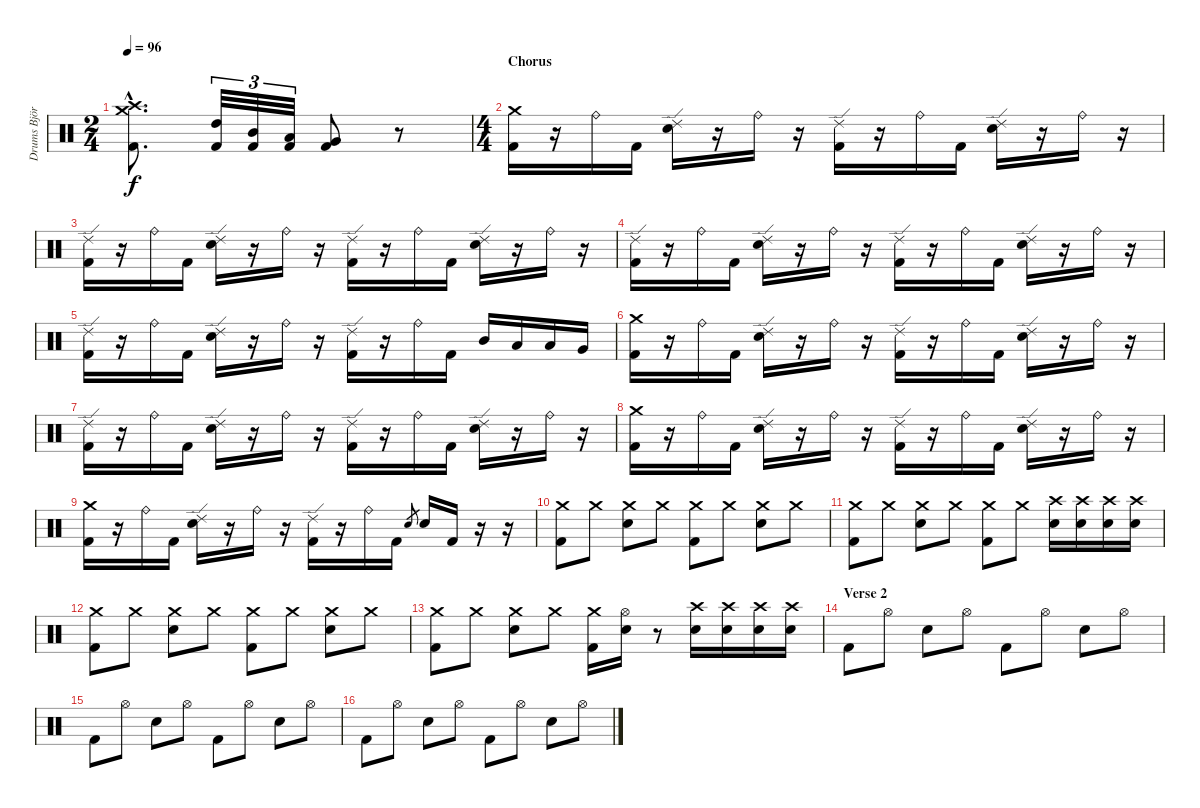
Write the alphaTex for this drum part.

\track ("Drums Björn Fryklund" "Drums Björ") {instrument percussion}
\staff {score}
\articulation defaults
\ts (2 4)
\tempo 96
\clef neutral
\ks c
("Crash medium (hit)"{hac} "Crash high (hit)"{hac} "Kick (hit) 2"{hac}).8{d dy f} ("High Tom (hit)" "Kick (hit) 2").32{tu (3 2)} ("Mid Tom (hit)" "Kick (hit) 2").32{tu (3 2)} ("Low Tom (hit)" "Kick (hit) 2").32{tu (3 2)} ("Very Low Tom (hit)" "Kick (hit) 2").8 r.8 |
\ts (4 4)
\section ("" "Chorus")
("Crash medium (hit)" "Kick (hit) 2").16 r.16 "Ride (bell)".16 "Kick (hit) 2".16 ("Ride (edge) 2" "Snare (hit) 2").16 r.16 "Ride (bell)".16 r.16 ("Ride (edge) 2" "Kick (hit) 2").16 r.16 "Ride (bell)".16 "Kick (hit) 2".16 ("Ride (edge) 2" "Snare (hit) 2").16 r.16 "Ride (bell)".16 r.16 |
("Ride (edge) 2" "Kick (hit) 2").16 r.16 "Ride (bell)".16 "Kick (hit) 2".16 ("Ride (edge) 2" "Snare (hit) 2").16 r.16 "Ride (bell)".16 r.16 ("Ride (edge) 2" "Kick (hit) 2").16 r.16 "Ride (bell)".16 "Kick (hit) 2".16 ("Ride (edge) 2" "Snare (hit) 2").16 r.16 "Ride (bell)".16 r.16 |
("Ride (edge) 2" "Kick (hit) 2").16 r.16 "Ride (bell)".16 "Kick (hit) 2".16 ("Ride (edge) 2" "Snare (hit) 2").16 r.16 "Ride (bell)".16 r.16 ("Ride (edge) 2" "Kick (hit) 2").16 r.16 "Ride (bell)".16 "Kick (hit) 2".16 ("Ride (edge) 2" "Snare (hit) 2").16 r.16 "Ride (bell)".16 r.16 |
("Ride (edge) 2" "Kick (hit) 2").16 r.16 "Ride (bell)".16 "Kick (hit) 2".16 ("Ride (edge) 2" "Snare (hit) 2").16 r.16 "Ride (bell)".16 r.16 ("Ride (edge) 2" "Kick (hit) 2").16 r.16 "Ride (bell)".16 "Kick (hit) 2".16 "Mid Tom (hit)".16 "Low Tom (hit)".16 "Low Tom (hit)".16 "Very Low Tom (hit)".16 |
("Crash medium (hit)" "Kick (hit) 2").16 r.16 "Ride (bell)".16 "Kick (hit) 2".16 ("Ride (edge) 2" "Snare (hit) 2").16 r.16 "Ride (bell)".16 r.16 ("Ride (edge) 2" "Kick (hit) 2").16 r.16 "Ride (bell)".16 "Kick (hit) 2".16 ("Ride (edge) 2" "Snare (hit) 2").16 r.16 "Ride (bell)".16 r.16 |
("Ride (edge) 2" "Kick (hit) 2").16 r.16 "Ride (bell)".16 "Kick (hit) 2".16 ("Ride (edge) 2" "Snare (hit) 2").16 r.16 "Ride (bell)".16 r.16 ("Ride (edge) 2" "Kick (hit) 2").16 r.16 "Ride (bell)".16 "Kick (hit) 2".16 ("Ride (edge) 2" "Snare (hit) 2").16 r.16 "Ride (bell)".16 r.16 |
("Crash medium (hit)" "Kick (hit) 2").16 r.16 "Ride (bell)".16 "Kick (hit) 2".16 ("Ride (edge) 2" "Snare (hit) 2").16 r.16 "Ride (bell)".16 r.16 ("Ride (edge) 2" "Kick (hit) 2").16 r.16 "Ride (bell)".16 "Kick (hit) 2".16 ("Ride (edge) 2" "Snare (hit) 2").16 r.16 "Ride (bell)".16 r.16 |
("Crash medium (hit)" "Kick (hit) 2").16 r.16 "Ride (bell)".16 "Kick (hit) 2".16 ("Ride (edge) 2" "Snare (hit) 2").16 r.16 "Ride (bell)".16 r.16 ("Ride (edge) 2" "Kick (hit) 2").16 r.16 "Ride (bell)".16 "Kick (hit) 2".16 "Snare (hit) 2".8{gr} "Snare (hit) 2".16 "Kick (hit) 2".16 r.16 r.16 |
("Crash medium (hit)" "Kick (hit) 2").8 "Crash medium (hit)".8 ("Crash medium (hit)" "Snare (hit) 2").8 "Crash medium (hit)".8 ("Crash medium (hit)" "Kick (hit) 2").8 "Crash medium (hit)".8 ("Crash medium (hit)" "Snare (hit) 2").8 "Crash medium (hit)".8 |
("Crash medium (hit)" "Kick (hit) 2").8 "Crash medium (hit)".8 ("Crash medium (hit)" "Snare (hit) 2").8 "Crash medium (hit)".8 ("Crash medium (hit)" "Kick (hit) 2").8 "Crash medium (hit)".8 ("Crash high (hit)" "Snare (hit) 2").16 ("Crash high (hit)" "Snare (hit) 2").16 ("Crash high (hit)" "Snare (hit) 2").16 ("Crash high (hit)" "Snare (hit) 2").16 |
("Crash medium (hit)" "Kick (hit) 2").8 "Crash medium (hit)".8 ("Crash medium (hit)" "Snare (hit) 2").8 "Crash medium (hit)".8 ("Crash medium (hit)" "Kick (hit) 2").8 "Crash medium (hit)".8 ("Crash medium (hit)" "Snare (hit) 2").8 "Crash medium (hit)".8 |
("Crash medium (hit)" "Kick (hit) 2").8 "Crash medium (hit)".8 ("Crash medium (hit)" "Snare (hit) 2").8 "Crash medium (hit)".8 ("Crash medium (hit)" "Kick (hit) 2").16 ("Hi-Hat (open)" "Snare (hit) 2").16 r.8 ("Crash high (hit)" "Snare (hit) 2").16 ("Crash high (hit)" "Snare (hit) 2").16 ("Crash high (hit)" "Snare (hit) 2").16 ("Crash high (hit)" "Snare (hit) 2").16 |
\section ("" "Verse 2")
"Kick (hit) 2".8 "Hi-Hat (open)".8 "Snare (hit) 2".8 "Hi-Hat (open)".8 "Kick (hit) 2".8 "Hi-Hat (open)".8 "Snare (hit) 2".8 "Hi-Hat (open)".8 |
"Kick (hit) 2".8 "Hi-Hat (open)".8 "Snare (hit) 2".8 "Hi-Hat (open)".8 "Kick (hit) 2".8 "Hi-Hat (open)".8 "Snare (hit) 2".8 "Hi-Hat (open)".8 |
"Kick (hit) 2".8 "Hi-Hat (open)".8 "Snare (hit) 2".8 "Hi-Hat (open)".8 "Kick (hit) 2".8 "Hi-Hat (open)".8 "Snare (hit) 2".8 "Hi-Hat (open)".8
